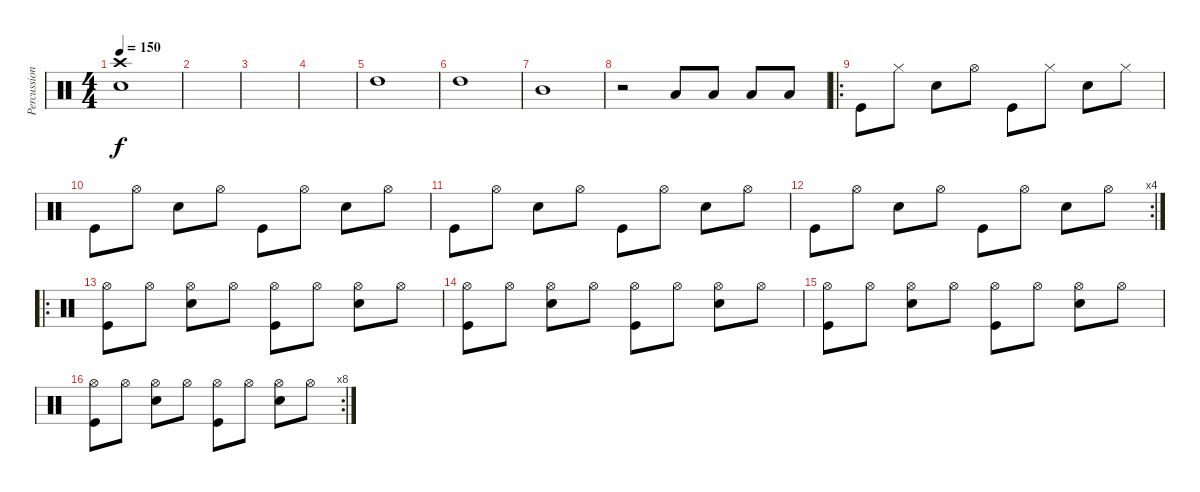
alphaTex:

\track ("Percussion" "Percussion") {instrument percussion}
\staff {score}
\articulation defaults
\ts (4 4)
\tempo 150
\clef neutral
\ks c
("Crash high (hit)" "Electric Snare (hit)").1{dy f} |
|
|
|
"High Tom (hit)".1 |
"High Tom (hit)".1 |
"Mid Tom (hit)".1 |
r.2 "Low Tom (hit)".8 "Low Tom (hit)".8 "Low Tom (hit)".8 "Low Tom (hit)".8 |
\ro "Kick (hit)".8 "Hi-Hat (closed)".8 "Electric Snare (hit)".8 "Hi-Hat (open)".8 "Kick (hit)".8 "Hi-Hat (closed)".8 "Electric Snare (hit)".8 "Hi-Hat (closed)".8
|
"Kick (hit)".8 "Hi-Hat (open)".8 "Electric Snare (hit)".8 "Hi-Hat (open)".8 "Kick (hit)".8 "Hi-Hat (open)".8 "Electric Snare (hit)".8 "Hi-Hat (open)".8 |
"Kick (hit)".8 "Hi-Hat (open)".8 "Electric Snare (hit)".8 "Hi-Hat (open)".8 "Kick (hit)".8 "Hi-Hat (open)".8 "Electric Snare (hit)".8 "Hi-Hat (open)".8 |
\rc 4 "Kick (hit)".8 "Hi-Hat (open)".8 "Electric Snare (hit)".8 "Hi-Hat (open)".8 "Kick (hit)".8 "Hi-Hat (open)".8 "Electric Snare (hit)".8 "Hi-Hat (open)".8
|
\ro
("Hi-Hat (open)" "Kick (hit)").8 "Hi-Hat (open)".8 ("Hi-Hat (open)" "Electric Snare (hit)").8 "Hi-Hat (open)".8 ("Hi-Hat (open)" "Kick (hit)").8 "Hi-Hat (open)".8 ("Hi-Hat (open)" "Electric Snare (hit)").8 "Hi-Hat (open)".8 |
("Hi-Hat (open)" "Kick (hit)").8 "Hi-Hat (open)".8 ("Hi-Hat (open)" "Electric Snare (hit)").8 "Hi-Hat (open)".8 ("Hi-Hat (open)" "Kick (hit)").8 "Hi-Hat (open)".8 ("Hi-Hat (open)" "Electric Snare (hit)").8 "Hi-Hat (open)".8 |
("Hi-Hat (open)" "Kick (hit)").8 "Hi-Hat (open)".8 ("Hi-Hat (open)" "Electric Snare (hit)").8 "Hi-Hat (open)".8 ("Hi-Hat (open)" "Kick (hit)").8 "Hi-Hat (open)".8 ("Hi-Hat (open)" "Electric Snare (hit)").8 "Hi-Hat (open)".8 |
\rc 8
("Hi-Hat (open)" "Kick (hit)").8 "Hi-Hat (open)".8 ("Hi-Hat (open)" "Electric Snare (hit)").8 "Hi-Hat (open)".8 ("Hi-Hat (open)" "Kick (hit)").8 "Hi-Hat (open)".8 ("Hi-Hat (open)" "Electric Snare (hit)").8 "Hi-Hat (open)".8
